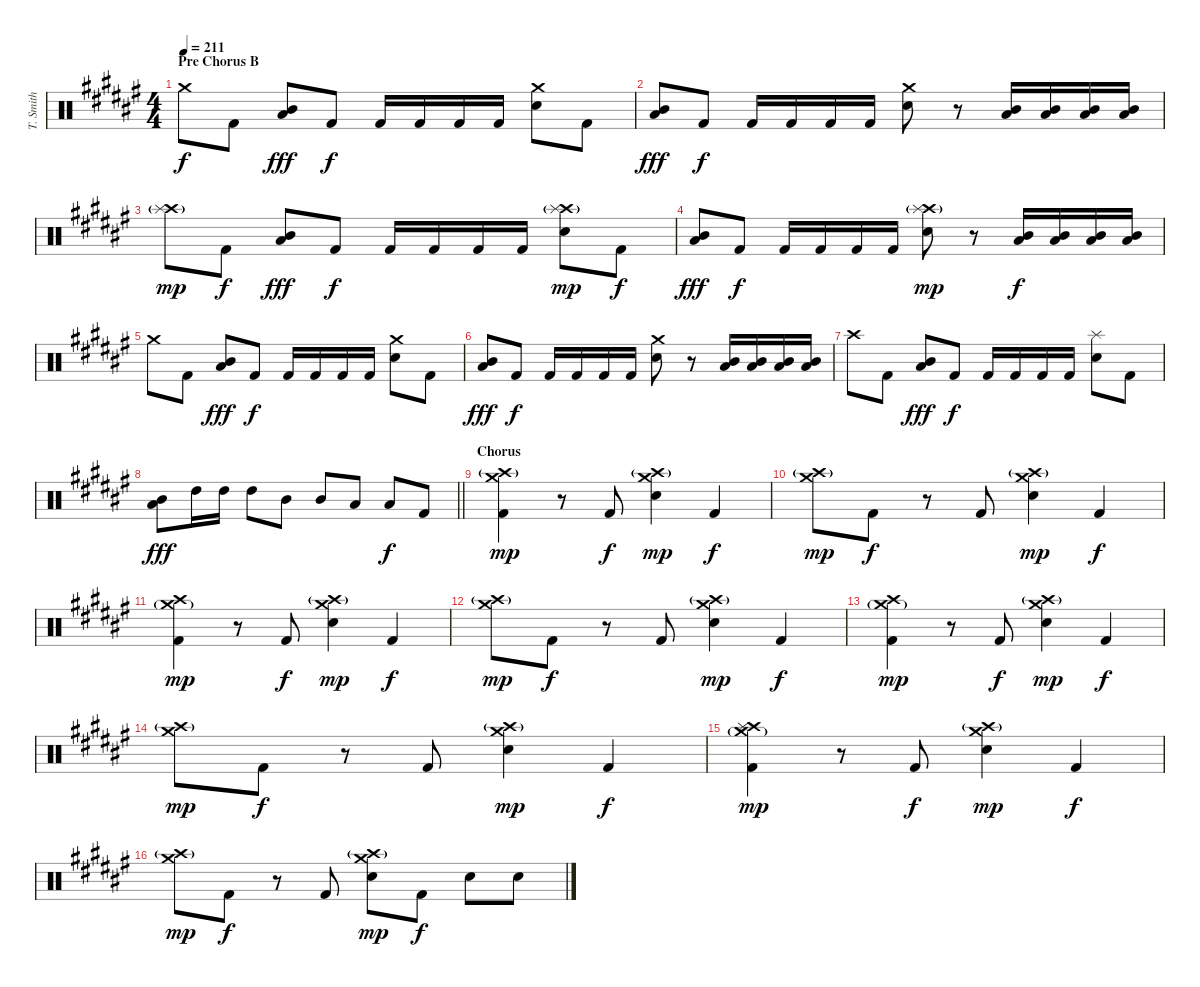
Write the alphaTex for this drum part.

\track ("T. Smith" "T. Smith") {instrument percussion}
\staff {score}
\articulation defaults
\ts (4 4)
\section ("" "Pre Chorus B")
\tempo 211
\clef neutral
\ks d#minor "Crash medium (hit)".8{dy f} "Kick (hit) 2".8
("Mid Tom (hit)" "Low Tom (hit)").8{dy fff} "Kick (hit) 2".8{dy f} "Kick (hit) 2".16 "Kick (hit) 2".16 "Kick (hit) 2".16 "Kick (hit) 2".16 ("Crash medium (hit)" "Electric Snare (hit)").8 "Kick (hit) 2".8 |
("Mid Tom (hit)" "Low Tom (hit)").8{dy fff} "Kick (hit) 2".8{dy f} "Kick (hit) 2".16 "Kick (hit) 2".16 "Kick (hit) 2".16 "Kick (hit) 2".16 ("Crash medium (hit)" "Electric Snare (hit)").8 r.8 ("Mid Tom (hit)" "Low Tom (hit)").16 ("Mid Tom (hit)" "Low Tom (hit)").16 ("Mid Tom (hit)" "Low Tom (hit)").16 ("Mid Tom (hit)" "Low Tom (hit)").16 |
("Crash high (hit)"{g} "Splash (hit)").8{dy mp} "Kick (hit) 2".8{dy f} ("Mid Tom (hit)" "Low Tom (hit)").8{dy fff} "Kick (hit) 2".8{dy f} "Kick (hit) 2".16 "Kick (hit) 2".16 "Kick (hit) 2".16 "Kick (hit) 2".16 ("Crash high (hit)"{g} "Splash (hit)" "Electric Snare (hit)").8{dy mp} "Kick (hit) 2".8{dy f} |
("Mid Tom (hit)" "Low Tom (hit)").8{dy fff} "Kick (hit) 2".8{dy f} "Kick (hit) 2".16 "Kick (hit) 2".16 "Kick (hit) 2".16 "Kick (hit) 2".16 ("Crash high (hit)"{g} "Splash (hit)" "Electric Snare (hit)").8{dy mp} r.8 ("Mid Tom (hit)" "Low Tom (hit)").16{dy f} ("Mid Tom (hit)" "Low Tom (hit)").16 ("Mid Tom (hit)" "Low Tom (hit)").16 ("Mid Tom (hit)" "Low Tom (hit)").16 |
"Crash medium (hit)".8 "Kick (hit) 2".8 ("Mid Tom (hit)" "Low Tom (hit)").8{dy fff} "Kick (hit) 2".8{dy f} "Kick (hit) 2".16 "Kick (hit) 2".16 "Kick (hit) 2".16 "Kick (hit) 2".16 ("Crash medium (hit)" "Electric Snare (hit)").8 "Kick (hit) 2".8 |
("Mid Tom (hit)" "Low Tom (hit)").8{dy fff} "Kick (hit) 2".8{dy f} "Kick (hit) 2".16 "Kick (hit) 2".16 "Kick (hit) 2".16 "Kick (hit) 2".16 ("Crash medium (hit)" "Electric Snare (hit)").8 r.8 ("Mid Tom (hit)" "Low Tom (hit)").16 ("Mid Tom (hit)" "Low Tom (hit)").16 ("Mid Tom (hit)" "Low Tom (hit)").16 ("Mid Tom (hit)" "Low Tom (hit)").16 |
"Crash high (hit)".8 "Kick (hit) 2".8 ("Mid Tom (hit)" "Low Tom (hit)").8{dy fff} "Kick (hit) 2".8{dy f} "Kick (hit) 2".16 "Kick (hit) 2".16 "Kick (hit) 2".16 "Kick (hit) 2".16 ("Splash (hit)" "Electric Snare (hit)").8 "Kick (hit) 2".8 |
\barLineRight lightlight
("Mid Tom (hit)" "Low Tom (hit)").8{dy fff} "High Tom (hit)".16 "High Tom (hit)".16 "High Tom (hit)".8 "Mid Tom (hit)".8 "Mid Tom (hit)".8 "Low Tom (hit)".8 "Low Tom (hit)".8{dy f} "Kick (hit) 2".8 |
\section ("" "Chorus")
("Crash medium (hit)" "Crash high (hit)"{g} "Kick (hit) 2").4{dy mp} r.8 "Kick (hit) 2".8{dy f} ("Crash medium (hit)" "Crash high (hit)"{g} "Electric Snare (hit)").4{dy mp} "Kick (hit) 2".4{dy f} |
("Crash medium (hit)" "Crash high (hit)"{g}).8{dy mp} "Kick (hit) 2".8{dy f} r.8 "Kick (hit) 2".8 ("Crash medium (hit)" "Crash high (hit)"{g} "Electric Snare (hit)").4{dy mp} "Kick (hit) 2".4{dy f} |
("Crash medium (hit)"{g} "Crash high (hit)" "Kick (hit) 2").4{dy mp} r.8 "Kick (hit) 2".8{dy f} ("Crash medium (hit)" "Crash high (hit)"{g} "Electric Snare (hit)").4{dy mp} "Kick (hit) 2".4{dy f} |
("Crash medium (hit)" "Crash high (hit)"{g}).8{dy mp} "Kick (hit) 2".8{dy f} r.8 "Kick (hit) 2".8 ("Crash medium (hit)" "Crash high (hit)"{g} "Electric Snare (hit)").4{dy mp} "Kick (hit) 2".4{dy f} |
("Crash medium (hit)"{g} "Crash high (hit)" "Kick (hit) 2").4{dy mp} r.8 "Kick (hit) 2".8{dy f} ("Crash medium (hit)" "Crash high (hit)"{g} "Electric Snare (hit)").4{dy mp} "Kick (hit) 2".4{dy f} |
("Crash medium (hit)" "Crash high (hit)"{g}).8{dy mp} "Kick (hit) 2".8{dy f} r.8 "Kick (hit) 2".8 ("Crash medium (hit)" "Crash high (hit)"{g} "Electric Snare (hit)").4{dy mp} "Kick (hit) 2".4{dy f} |
("Crash medium (hit)"{g} "Crash high (hit)" "Splash (hit)" "Kick (hit) 2").4{dy mp} r.8 "Kick (hit) 2".8{dy f} ("Crash medium (hit)" "Crash high (hit)"{g} "Electric Snare (hit)").4{dy mp} "Kick (hit) 2".4{dy f} |
("Crash medium (hit)" "Crash high (hit)"{g}).8{dy mp} "Kick (hit) 2".8{dy f} r.8 "Kick (hit) 2".8 ("Crash medium (hit)" "Crash high (hit)"{g} "Electric Snare (hit)").8{dy mp} "Kick (hit) 2".8{dy f} "Electric Snare (hit)".8 "Electric Snare (hit)".8
